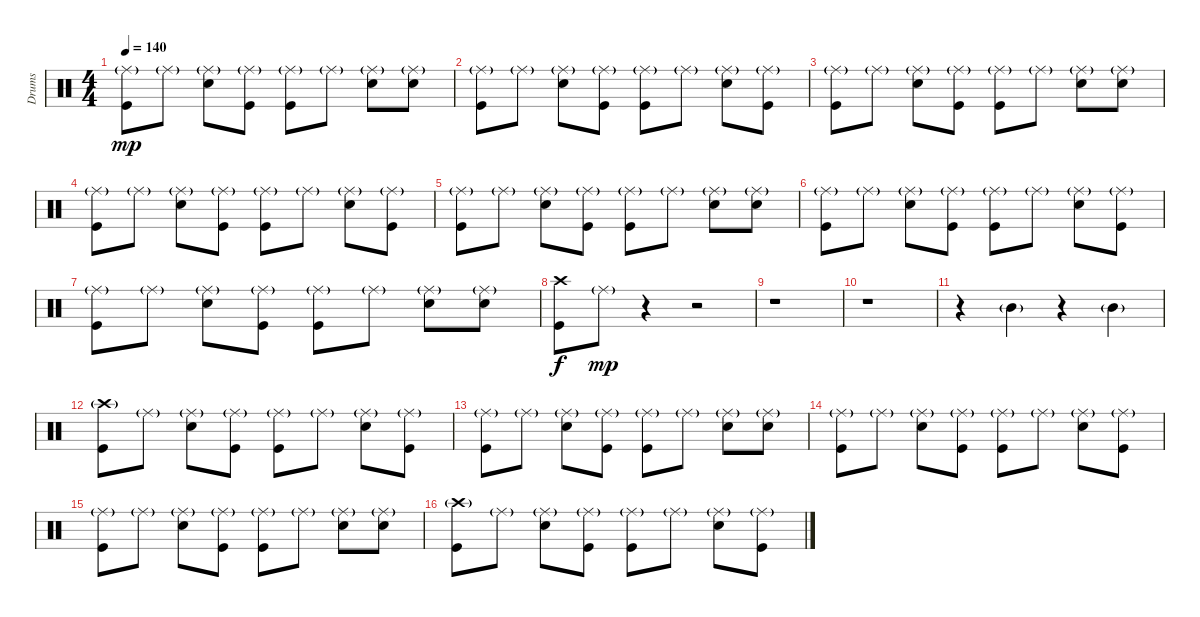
\track ("Drums" "Drums") {instrument percussion}
\staff {score}
\articulation defaults
\ts (4 4)
\tempo 140
\clef neutral
\ks c
("Ride (middle)"{g} "Kick (hit)").8{dy mp} "Ride (middle)"{g}.8 ("Ride (middle)"{g} "Electric Snare (hit)").8 ("Ride (middle)"{g} "Kick (hit)").8 ("Ride (middle)"{g} "Kick (hit)").8 "Ride (middle)"{g}.8 ("Ride (middle)"{g} "Electric Snare (hit)").8 ("Ride (middle)"{g} "Electric Snare (hit)").8 |
("Ride (middle)"{g} "Kick (hit)").8 "Ride (middle)"{g}.8 ("Ride (middle)"{g} "Electric Snare (hit)").8 ("Ride (middle)"{g} "Kick (hit)").8 ("Ride (middle)"{g} "Kick (hit)").8 "Ride (middle)"{g}.8 ("Ride (middle)"{g} "Electric Snare (hit)").8 ("Ride (middle)"{g} "Kick (hit)").8 |
("Ride (middle)"{g} "Kick (hit)").8 "Ride (middle)"{g}.8 ("Ride (middle)"{g} "Electric Snare (hit)").8 ("Ride (middle)"{g} "Kick (hit)").8 ("Ride (middle)"{g} "Kick (hit)").8 "Ride (middle)"{g}.8 ("Ride (middle)"{g} "Electric Snare (hit)").8 ("Ride (middle)"{g} "Electric Snare (hit)").8 |
("Ride (middle)"{g} "Kick (hit)").8 "Ride (middle)"{g}.8 ("Ride (middle)"{g} "Electric Snare (hit)").8 ("Ride (middle)"{g} "Kick (hit)").8 ("Ride (middle)"{g} "Kick (hit)").8 "Ride (middle)"{g}.8 ("Ride (middle)"{g} "Electric Snare (hit)").8 ("Ride (middle)"{g} "Kick (hit)").8 |
("Ride (middle)"{g} "Kick (hit)").8 "Ride (middle)"{g}.8 ("Ride (middle)"{g} "Electric Snare (hit)").8 ("Ride (middle)"{g} "Kick (hit)").8 ("Ride (middle)"{g} "Kick (hit)").8 "Ride (middle)"{g}.8 ("Ride (middle)"{g} "Electric Snare (hit)").8 ("Ride (middle)"{g} "Electric Snare (hit)").8 |
("Ride (middle)"{g} "Kick (hit)").8 "Ride (middle)"{g}.8 ("Ride (middle)"{g} "Electric Snare (hit)").8 ("Ride (middle)"{g} "Kick (hit)").8 ("Ride (middle)"{g} "Kick (hit)").8 "Ride (middle)"{g}.8 ("Ride (middle)"{g} "Electric Snare (hit)").8 ("Ride (middle)"{g} "Kick (hit)").8 |
("Ride (middle)"{g} "Kick (hit)").8 "Ride (middle)"{g}.8 ("Ride (middle)"{g} "Electric Snare (hit)").8 ("Ride (middle)"{g} "Kick (hit)").8 ("Ride (middle)"{g} "Kick (hit)").8 "Ride (middle)"{g}.8 ("Ride (middle)"{g} "Electric Snare (hit)").8 ("Ride (middle)"{g} "Electric Snare (hit)").8 |
("Crash high (hit)" "Kick (hit)").8{dy f} "Ride (middle)"{g}.8{dy mp} r.4 r.2 |
r.1 |
r.1 |
r.4 "Mid Tom (hit)"{g}.4 r.4 "Mid Tom (hit)"{g}.4 |
("Crash high (hit)"{g} "Kick (hit)").8 "Ride (middle)"{g}.8 ("Ride (middle)"{g} "Electric Snare (hit)").8 ("Ride (middle)"{g} "Kick (hit)").8 ("Ride (middle)"{g} "Kick (hit)").8 "Ride (middle)"{g}.8 ("Ride (middle)"{g} "Electric Snare (hit)").8 ("Ride (middle)"{g} "Kick (hit)").8 |
("Ride (middle)"{g} "Kick (hit)").8 "Ride (middle)"{g}.8 ("Ride (middle)"{g} "Electric Snare (hit)").8 ("Ride (middle)"{g} "Kick (hit)").8 ("Ride (middle)"{g} "Kick (hit)").8 "Ride (middle)"{g}.8 ("Ride (middle)"{g} "Electric Snare (hit)").8 ("Ride (middle)"{g} "Electric Snare (hit)").8 |
("Ride (middle)"{g} "Kick (hit)").8 "Ride (middle)"{g}.8 ("Ride (middle)"{g} "Electric Snare (hit)").8 ("Ride (middle)"{g} "Kick (hit)").8 ("Ride (middle)"{g} "Kick (hit)").8 "Ride (middle)"{g}.8 ("Ride (middle)"{g} "Electric Snare (hit)").8 ("Ride (middle)"{g} "Kick (hit)").8 |
("Ride (middle)"{g} "Kick (hit)").8 "Ride (middle)"{g}.8 ("Ride (middle)"{g} "Electric Snare (hit)").8 ("Ride (middle)"{g} "Kick (hit)").8 ("Ride (middle)"{g} "Kick (hit)").8 "Ride (middle)"{g}.8 ("Ride (middle)"{g} "Electric Snare (hit)").8 ("Ride (middle)"{g} "Electric Snare (hit)").8 |
("Crash high (hit)"{g} "Kick (hit)").8 "Ride (middle)"{g}.8 ("Ride (middle)"{g} "Electric Snare (hit)").8 ("Ride (middle)"{g} "Kick (hit)").8 ("Ride (middle)"{g} "Kick (hit)").8 "Ride (middle)"{g}.8 ("Ride (middle)"{g} "Electric Snare (hit)").8 ("Ride (middle)"{g} "Kick (hit)").8
